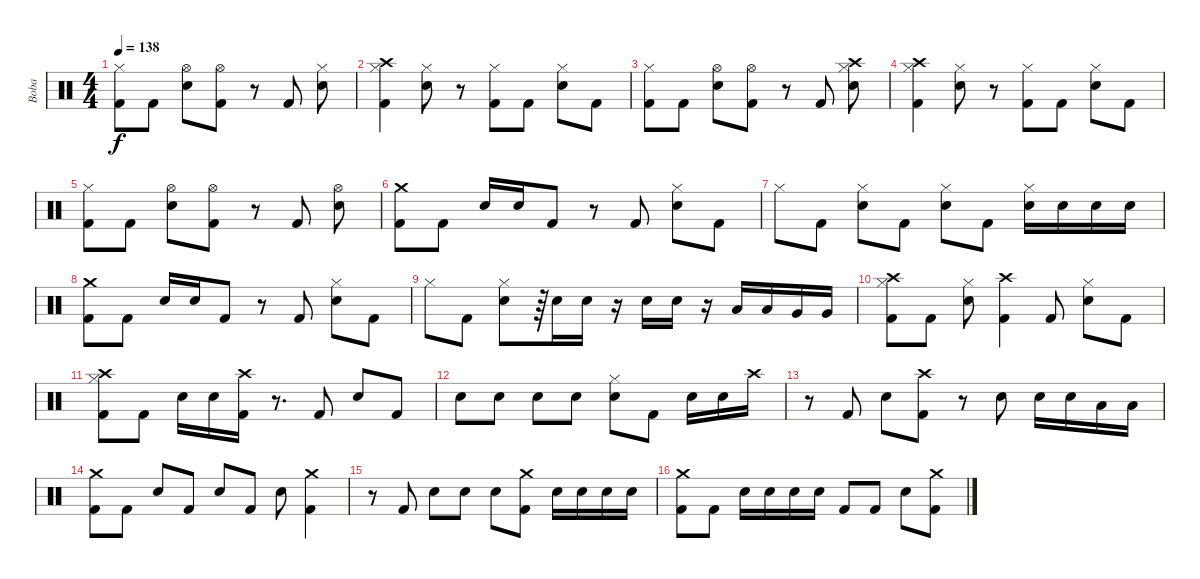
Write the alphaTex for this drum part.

\track ("Boba" "Boba") {instrument percussion}
\staff {score}
\articulation defaults
\ts (4 4)
\tempo 138
\clef neutral
\ks c
("Hi-Hat (closed)" "Kick (hit) 2").8{dy f} "Kick (hit) 2".8 ("Hi-Hat (open)" "Electric Snare (hit)").8 ("Hi-Hat (open)" "Kick (hit) 2").8 r.8 "Kick (hit) 2".8 ("Hi-Hat (closed)" "Electric Snare (hit)").8 |
("Crash high (hit)" "Hi-Hat (closed)" "Kick (hit) 2").4 ("Hi-Hat (closed)" "Electric Snare (hit)").8 r.8 ("Hi-Hat (closed)" "Kick (hit) 2").8 "Kick (hit) 2".8 ("Hi-Hat (closed)" "Electric Snare (hit)").8 "Kick (hit) 2".8 |
("Hi-Hat (closed)" "Kick (hit) 2").8 "Kick (hit) 2".8 ("Hi-Hat (open)" "Electric Snare (hit)").8 ("Hi-Hat (open)" "Kick (hit) 2").8 r.8 "Kick (hit) 2".8 ("Crash high (hit)" "Hi-Hat (closed)" "Electric Snare (hit)").8 |
("Crash high (hit)" "Hi-Hat (closed)" "Kick (hit) 2").4 ("Hi-Hat (closed)" "Electric Snare (hit)").8 r.8 ("Hi-Hat (closed)" "Kick (hit) 2").8 "Kick (hit) 2".8 ("Hi-Hat (closed)" "Electric Snare (hit)").8 "Kick (hit) 2".8 |
("Hi-Hat (closed)" "Kick (hit) 2").8 "Kick (hit) 2".8 ("Hi-Hat (open)" "Electric Snare (hit)").8 ("Hi-Hat (open)" "Kick (hit) 2").8 r.8 "Kick (hit) 2".8 ("Hi-Hat (open)" "Electric Snare (hit)").8 |
("Crash medium (hit)" "Kick (hit) 2").8 "Kick (hit) 2".8 "Electric Snare (hit)".16 "Electric Snare (hit)".16 "Kick (hit) 2".8 r.8 "Kick (hit) 2".8 ("Hi-Hat (closed)" "Electric Snare (hit)").8 "Kick (hit) 2".8 |
"Hi-Hat (closed)".8 "Kick (hit) 2".8 ("Hi-Hat (closed)" "Electric Snare (hit)").8 "Kick (hit) 2".8 ("Hi-Hat (closed)" "Electric Snare (hit)").8 "Kick (hit) 2".8 ("Hi-Hat (closed)" "Electric Snare (hit)").16 "Electric Snare (hit)".16 "Electric Snare (hit)".16 "Electric Snare (hit)".16 |
("Crash medium (hit)" "Kick (hit) 2").8 "Kick (hit) 2".8 "Electric Snare (hit)".16 "Electric Snare (hit)".16 "Kick (hit) 2".8 r.8 "Kick (hit) 2".8 ("Hi-Hat (closed)" "Electric Snare (hit)").8 "Kick (hit) 2".8 |
"Hi-Hat (closed)".8 "Kick (hit) 2".8 ("Hi-Hat (closed)" "Electric Snare (hit)").8 r.64 "Electric Snare (hit)".16 "Electric Snare (hit)".16 r.16 "Electric Snare (hit)".16 "Electric Snare (hit)".16 r.16 "Low Tom (hit)".16 "Low Tom (hit)".16 "Very Low Tom (hit)".16 "Very Low Tom (hit)".16 |
("Crash high (hit)" "Hi-Hat (closed)" "Kick (hit) 2").8 "Kick (hit) 2".8 ("Hi-Hat (closed)" "Electric Snare (hit)").8 ("Crash high (hit)" "Kick (hit) 2").4 "Kick (hit) 2".8 ("Hi-Hat (closed)" "Electric Snare (hit)").8 "Kick (hit) 2".8 |
("Crash high (hit)" "Hi-Hat (closed)" "Kick (hit) 2").8 "Kick (hit) 2".8 "Electric Snare (hit)".16 "Electric Snare (hit)".16 ("Crash high (hit)" "Kick (hit) 2").16 r.8{d} "Kick (hit) 2".8 "Electric Snare (hit)".8 "Kick (hit) 2".8 |
"Electric Snare (hit)".8 "Electric Snare (hit)".8 "Electric Snare (hit)".8 "Electric Snare (hit)".8 ("Hi-Hat (closed)" "Electric Snare (hit)").8 "Kick (hit) 2".8 "Electric Snare (hit)".16 "Electric Snare (hit)".16 "Crash high (hit)".16 |
r.8 "Kick (hit) 2".8 "Electric Snare (hit)".8 ("Crash high (hit)" "Kick (hit) 2").8 r.8 "Electric Snare (hit)".8 "Electric Snare (hit)".16 "Electric Snare (hit)".16 "Low Tom (hit)".16 "Low Tom (hit)".16 |
("Crash medium (hit)" "Kick (hit) 2").8 "Kick (hit) 2".8 "Electric Snare (hit)".8 "Kick (hit) 2".8 "Electric Snare (hit)".8 "Kick (hit) 2".8 "Electric Snare (hit)".8 ("Crash medium (hit)" "Kick (hit) 2").4 |
r.8 "Kick (hit) 2".8 "Electric Snare (hit)".8 "Electric Snare (hit)".8 "Electric Snare (hit)".8 ("Crash medium (hit)" "Kick (hit) 2").8 "Electric Snare (hit)".16 "Electric Snare (hit)".16 "Electric Snare (hit)".16 "Electric Snare (hit)".16 |
("Crash medium (hit)" "Kick (hit) 2").8 "Kick (hit) 2".8 "Electric Snare (hit)".16 "Electric Snare (hit)".16 "Electric Snare (hit)".16 "Electric Snare (hit)".16 "Kick (hit) 2".8 "Kick (hit) 2".8 "Electric Snare (hit)".8 ("Crash medium (hit)" "Kick (hit) 2").8
